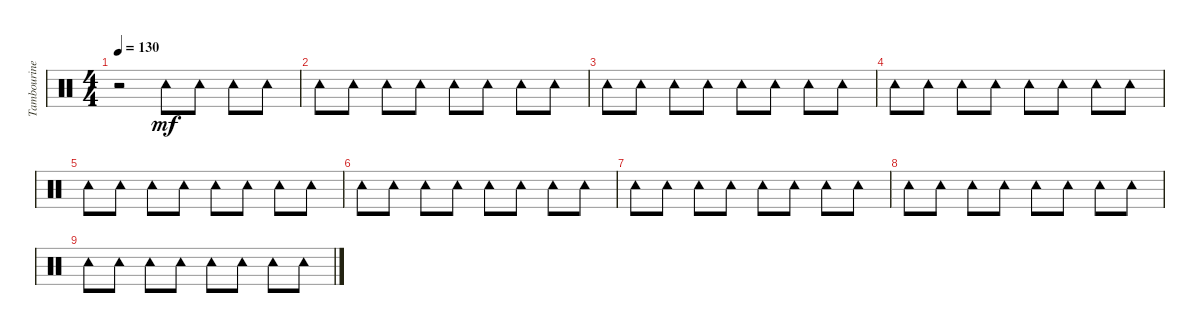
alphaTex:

\track ("Tambourine" "Tambourine") {instrument percussion}
\staff {score}
\articulation defaults
\ts (4 4)
\tempo 130
\clef neutral
\ks c
r.2{dy mf} "Tambourine (hit)".8 "Tambourine (hit)".8 "Tambourine (hit)".8 "Tambourine (hit)".8 |
"Tambourine (hit)".8 "Tambourine (hit)".8 "Tambourine (hit)".8 "Tambourine (hit)".8 "Tambourine (hit)".8 "Tambourine (hit)".8 "Tambourine (hit)".8 "Tambourine (hit)".8 |
"Tambourine (hit)".8 "Tambourine (hit)".8 "Tambourine (hit)".8 "Tambourine (hit)".8 "Tambourine (hit)".8 "Tambourine (hit)".8 "Tambourine (hit)".8 "Tambourine (hit)".8 |
"Tambourine (hit)".8 "Tambourine (hit)".8 "Tambourine (hit)".8 "Tambourine (hit)".8 "Tambourine (hit)".8 "Tambourine (hit)".8 "Tambourine (hit)".8 "Tambourine (hit)".8 |
"Tambourine (hit)".8 "Tambourine (hit)".8 "Tambourine (hit)".8 "Tambourine (hit)".8 "Tambourine (hit)".8 "Tambourine (hit)".8 "Tambourine (hit)".8 "Tambourine (hit)".8 |
"Tambourine (hit)".8 "Tambourine (hit)".8 "Tambourine (hit)".8 "Tambourine (hit)".8 "Tambourine (hit)".8 "Tambourine (hit)".8 "Tambourine (hit)".8 "Tambourine (hit)".8 |
"Tambourine (hit)".8 "Tambourine (hit)".8 "Tambourine (hit)".8 "Tambourine (hit)".8 "Tambourine (hit)".8 "Tambourine (hit)".8 "Tambourine (hit)".8 "Tambourine (hit)".8 |
"Tambourine (hit)".8 "Tambourine (hit)".8 "Tambourine (hit)".8 "Tambourine (hit)".8 "Tambourine (hit)".8 "Tambourine (hit)".8 "Tambourine (hit)".8 "Tambourine (hit)".8 |
"Tambourine (hit)".8 "Tambourine (hit)".8 "Tambourine (hit)".8 "Tambourine (hit)".8 "Tambourine (hit)".8 "Tambourine (hit)".8 "Tambourine (hit)".8 "Tambourine (hit)".8
